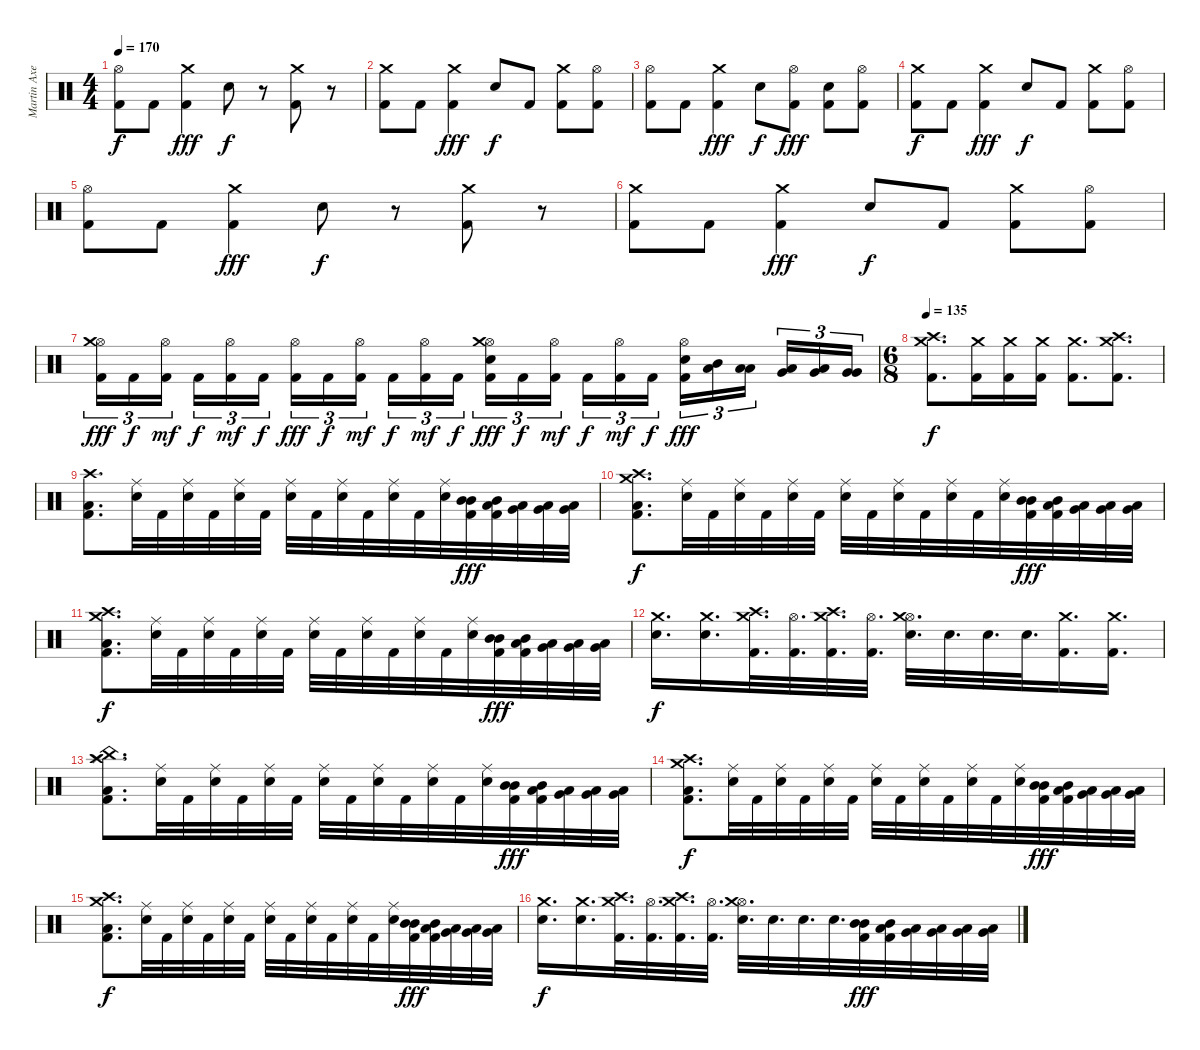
\track ("Martin Axenrot" "Martin Axe") {instrument percussion}
\staff
\articulation defaults
\ts (4 4)
\tempo 170
\clef neutral
\ks c
("Hi-Hat (open)" "Kick (hit) 2").8{dy f} "Kick (hit) 2".8 ("Crash medium (hit)" "Kick (hit) 2").4{dy fff} "Snare (hit) 2".8{dy f} r.8 ("Crash medium (hit)" "Kick (hit) 2").8 r.8 |
("Crash medium (hit)" "Kick (hit) 2").8 "Kick (hit) 2".8 ("Crash medium (hit)" "Kick (hit) 2").4{dy fff} "Snare (hit) 2".8{dy f} "Kick (hit) 2".8 ("Crash medium (hit)" "Kick (hit) 2").8 ("Hi-Hat (open)" "Kick (hit) 2").8 |
("Hi-Hat (open)" "Kick (hit) 2").8 "Kick (hit) 2".8 ("Crash medium (hit)" "Kick (hit) 2").4{dy fff} "Snare (hit) 2".8{dy f} ("Hi-Hat (open)" "Kick (hit) 2").8{dy fff} ("Snare (hit) 2" "Kick (hit) 2").8 ("Hi-Hat (open)" "Kick (hit) 2").8 |
("Crash medium (hit)" "Kick (hit) 2").8{dy f} "Kick (hit) 2".8 ("Crash medium (hit)" "Kick (hit) 2").4{dy fff} "Snare (hit) 2".8{dy f} "Kick (hit) 2".8 ("Crash medium (hit)" "Kick (hit) 2").8 ("Hi-Hat (open)" "Kick (hit) 2").8 |
("Hi-Hat (open)" "Kick (hit) 2").8 "Kick (hit) 2".8 ("Crash medium (hit)" "Kick (hit) 2").4{dy fff} "Snare (hit) 2".8{dy f} r.8 ("Crash medium (hit)" "Kick (hit) 2").8 r.8 |
("Crash medium (hit)" "Kick (hit) 2").8 "Kick (hit) 2".8 ("Crash medium (hit)" "Kick (hit) 2").4{dy fff} "Snare (hit) 2".8{dy f} "Kick (hit) 2".8 ("Crash medium (hit)" "Kick (hit) 2").8 ("Hi-Hat (open)" "Kick (hit) 2").8 |
("Hi-Hat (open)" "Crash medium (hit)" "Kick (hit) 2").16{tu (3 2) dy fff} "Kick (hit) 2".16{tu (3 2) dy f} ("Hi-Hat (open)" "Kick (hit) 2").16{tu (3 2) dy mf beam splitsecondary} "Kick (hit) 2".16{tu (3 2) dy f} ("Hi-Hat (open)" "Kick (hit) 2").16{tu (3 2) dy mf} "Kick (hit) 2".16{tu (3 2) dy f} ("Hi-Hat (open)" "Kick (hit) 2").16{tu (3 2) dy fff} "Kick (hit) 2".16{tu (3 2) dy f} ("Hi-Hat (open)" "Kick (hit) 2").16{tu (3 2) dy mf beam splitsecondary} "Kick (hit) 2".16{tu (3 2) dy f} ("Hi-Hat (open)" "Kick (hit) 2").16{tu (3 2) dy mf} "Kick (hit) 2".16{tu (3 2) dy f} ("Hi-Hat (open)" "Crash medium (hit)" "Snare (hit) 2" "Kick (hit) 2").16{tu (3 2) dy fff} "Kick (hit) 2".16{tu (3 2) dy f} ("Hi-Hat (open)" "Kick (hit) 2").16{tu (3 2) dy mf beam splitsecondary} "Kick (hit) 2".16{tu (3 2) dy f} ("Hi-Hat (open)" "Kick (hit) 2").16{tu (3 2) dy mf} "Kick (hit) 2".16{tu (3 2) dy f} ("Hi-Hat (open)" "Snare (hit) 2" "Kick (hit) 2").16{tu (3 2) dy fff} ("Mid Tom (hit)" "Low Tom (hit)").16{tu (3 2)} ("Low Tom (hit)" "Low Tom (hit)").16{tu (3 2) beam splitsecondary} ("Low Tom (hit)" "Very Low Tom (hit)").16{tu (3 2)} ("Low Tom (hit)" "Very Low Tom (hit)").16{tu (3 2)} ("Very Low Tom (hit)" "Very Low Tom (hit)").16{tu (3 2)} |
\ts (6 8)
\tempo 135
("Crash high (hit)" "Crash medium (hit)" "Kick (hit) 2").8{d dy f} ("Crash medium (hit)" "Kick (hit) 2").16 ("Crash medium (hit)" "Kick (hit) 2").16 ("Crash medium (hit)" "Kick (hit) 2").16 ("Crash medium (hit)" "Kick (hit) 2").8{d} ("Crash high (hit)" "Crash medium (hit)" "Kick (hit) 2").8{d} |
("Crash high (hit)" "Low Floor Tom (hit)" "Kick (hit) 2").8{d} ("Ride (middle)" "Snare (hit) 2").32 "Kick (hit) 2".32 ("Ride (middle)" "Snare (hit) 2").32 "Kick (hit) 2".32 ("Ride (middle)" "Snare (hit) 2").32 "Kick (hit) 2".32 ("Ride (middle)" "Snare (hit) 2").32 "Kick (hit) 2".32 ("Ride (middle)" "Snare (hit) 2").32 "Kick (hit) 2".32 ("Ride (middle)" "Snare (hit) 2").32 "Kick (hit) 2".32 ("Ride (middle)" "Snare (hit) 2").32 ("Mid Tom (hit)" "Mid Tom (hit)" "Kick (hit) 2").32{dy fff} ("Low Tom (hit)" "Mid Tom (hit)" "Kick (hit) 2").32 ("Very Low Tom (hit)" "Low Tom (hit)").32 ("Low Tom (hit)" "Very Low Tom (hit)").32 ("Very Low Tom (hit)" "Low Floor Tom (hit)").32 |
("Crash medium (hit)" "Crash high (hit)" "Low Floor Tom (hit)" "Kick (hit) 2").8{d dy f} ("Ride (middle)" "Snare (hit) 2").32 "Kick (hit) 2".32 ("Ride (middle)" "Snare (hit) 2").32 "Kick (hit) 2".32 ("Ride (middle)" "Snare (hit) 2").32 "Kick (hit) 2".32 ("Ride (middle)" "Snare (hit) 2").32 "Kick (hit) 2".32 ("Ride (middle)" "Snare (hit) 2").32 "Kick (hit) 2".32 ("Ride (middle)" "Snare (hit) 2").32 "Kick (hit) 2".32 ("Ride (middle)" "Snare (hit) 2").32 ("Mid Tom (hit)" "Mid Tom (hit)" "Kick (hit) 2").32{dy fff} ("Low Tom (hit)" "Mid Tom (hit)" "Kick (hit) 2").32 ("Very Low Tom (hit)" "Low Tom (hit)").32 ("Low Tom (hit)" "Very Low Tom (hit)").32 ("Very Low Tom (hit)" "Low Floor Tom (hit)").32 |
("Crash medium (hit)" "Crash high (hit)" "Low Floor Tom (hit)" "Kick (hit) 2").8{d dy f} ("Ride (middle)" "Snare (hit) 2").32 "Kick (hit) 2".32 ("Ride (middle)" "Snare (hit) 2").32 "Kick (hit) 2".32 ("Ride (middle)" "Snare (hit) 2").32 "Kick (hit) 2".32 ("Ride (middle)" "Snare (hit) 2").32 "Kick (hit) 2".32 ("Ride (middle)" "Snare (hit) 2").32 "Kick (hit) 2".32 ("Ride (middle)" "Snare (hit) 2").32 "Kick (hit) 2".32 ("Ride (middle)" "Snare (hit) 2").32 ("Mid Tom (hit)" "Mid Tom (hit)" "Kick (hit) 2").32{dy fff} ("Low Tom (hit)" "Mid Tom (hit)" "Kick (hit) 2").32 ("Very Low Tom (hit)" "Low Tom (hit)").32 ("Low Tom (hit)" "Very Low Tom (hit)").32 ("Very Low Tom (hit)" "Low Floor Tom (hit)").32 |
("Crash medium (hit)" "Snare (hit) 2").16{d dy f} ("Crash medium (hit)" "Snare (hit) 2").16{d} ("Crash medium (hit)" "Crash high (hit)" "Kick (hit) 2").32{d} ("Hi-Hat (open)" "Kick (hit) 2").32{d} ("Crash medium (hit)" "Crash high (hit)" "Kick (hit) 2").32{d} ("Hi-Hat (open)" "Kick (hit) 2").32{d} ("Hi-Hat (open)" "Crash medium (hit)" "Snare (hit) 2").32{d} "Snare (hit) 2".32{d} "Snare (hit) 2".32{d} "Snare (hit) 2".32{d} ("Crash medium (hit)" "Kick (hit) 2").16{d} ("Crash medium (hit)" "Kick (hit) 2").16{d} |
("China (hit)" "Splash (hit)" "Crash high (hit)" "Low Floor Tom (hit)" "Kick (hit) 2").8{d} ("Ride (middle)" "Snare (hit) 2").32 "Kick (hit) 2".32 ("Ride (middle)" "Snare (hit) 2").32 "Kick (hit) 2".32 ("Ride (middle)" "Snare (hit) 2").32 "Kick (hit) 2".32 ("Ride (middle)" "Snare (hit) 2").32 "Kick (hit) 2".32 ("Ride (middle)" "Snare (hit) 2").32 "Kick (hit) 2".32 ("Ride (middle)" "Snare (hit) 2").32 "Kick (hit) 2".32 ("Ride (middle)" "Snare (hit) 2").32 ("Mid Tom (hit)" "Mid Tom (hit)" "Kick (hit) 2").32{dy fff} ("Low Tom (hit)" "Mid Tom (hit)" "Kick (hit) 2").32 ("Very Low Tom (hit)" "Low Tom (hit)").32 ("Low Tom (hit)" "Very Low Tom (hit)").32 ("Very Low Tom (hit)" "Low Floor Tom (hit)").32 |
("Crash medium (hit)" "Crash high (hit)" "Low Floor Tom (hit)" "Kick (hit) 2").8{d dy f} ("Ride (middle)" "Snare (hit) 2").32 "Kick (hit) 2".32 ("Ride (middle)" "Snare (hit) 2").32 "Kick (hit) 2".32 ("Ride (middle)" "Snare (hit) 2").32 "Kick (hit) 2".32 ("Ride (middle)" "Snare (hit) 2").32 "Kick (hit) 2".32 ("Ride (middle)" "Snare (hit) 2").32 "Kick (hit) 2".32 ("Ride (middle)" "Snare (hit) 2").32 "Kick (hit) 2".32 ("Ride (middle)" "Snare (hit) 2").32 ("Mid Tom (hit)" "Mid Tom (hit)" "Kick (hit) 2").32{dy fff} ("Low Tom (hit)" "Mid Tom (hit)" "Kick (hit) 2").32 ("Very Low Tom (hit)" "Low Tom (hit)").32 ("Low Tom (hit)" "Very Low Tom (hit)").32 ("Very Low Tom (hit)" "Low Floor Tom (hit)").32 |
("Crash medium (hit)" "Crash high (hit)" "Low Floor Tom (hit)" "Kick (hit) 2").8{d dy f} ("Ride (middle)" "Snare (hit) 2").32 "Kick (hit) 2".32 ("Ride (middle)" "Snare (hit) 2").32 "Kick (hit) 2".32 ("Ride (middle)" "Snare (hit) 2").32 "Kick (hit) 2".32 ("Ride (middle)" "Snare (hit) 2").32 "Kick (hit) 2".32 ("Ride (middle)" "Snare (hit) 2").32 "Kick (hit) 2".32 ("Ride (middle)" "Snare (hit) 2").32 "Kick (hit) 2".32 ("Ride (middle)" "Snare (hit) 2").32 ("Mid Tom (hit)" "Mid Tom (hit)" "Kick (hit) 2").32{dy fff} ("Low Tom (hit)" "Mid Tom (hit)" "Kick (hit) 2").32 ("Very Low Tom (hit)" "Low Tom (hit)").32 ("Low Tom (hit)" "Very Low Tom (hit)").32 ("Very Low Tom (hit)" "Low Floor Tom (hit)").32 |
("Crash medium (hit)" "Snare (hit) 2").16{d dy f} ("Crash medium (hit)" "Snare (hit) 2").16{d} ("Crash medium (hit)" "Crash high (hit)" "Kick (hit) 2").32{d} ("Hi-Hat (open)" "Kick (hit) 2").32{d} ("Crash medium (hit)" "Crash high (hit)" "Kick (hit) 2").32{d} ("Hi-Hat (open)" "Kick (hit) 2").32{d} ("Hi-Hat (open)" "Crash medium (hit)" "Snare (hit) 2").32{d} "Snare (hit) 2".32{d} "Snare (hit) 2".32{d} "Snare (hit) 2".32{d} ("Mid Tom (hit)" "Mid Tom (hit)" "Kick (hit) 2").32{dy fff} ("Low Tom (hit)" "Mid Tom (hit)" "Kick (hit) 2").32 ("Very Low Tom (hit)" "Low Tom (hit)").32 ("Low Tom (hit)" "Very Low Tom (hit)").32 ("Very Low Tom (hit)" "Low Floor Tom (hit)").32 ("Low Tom (hit)" "Very Low Tom (hit)").32
